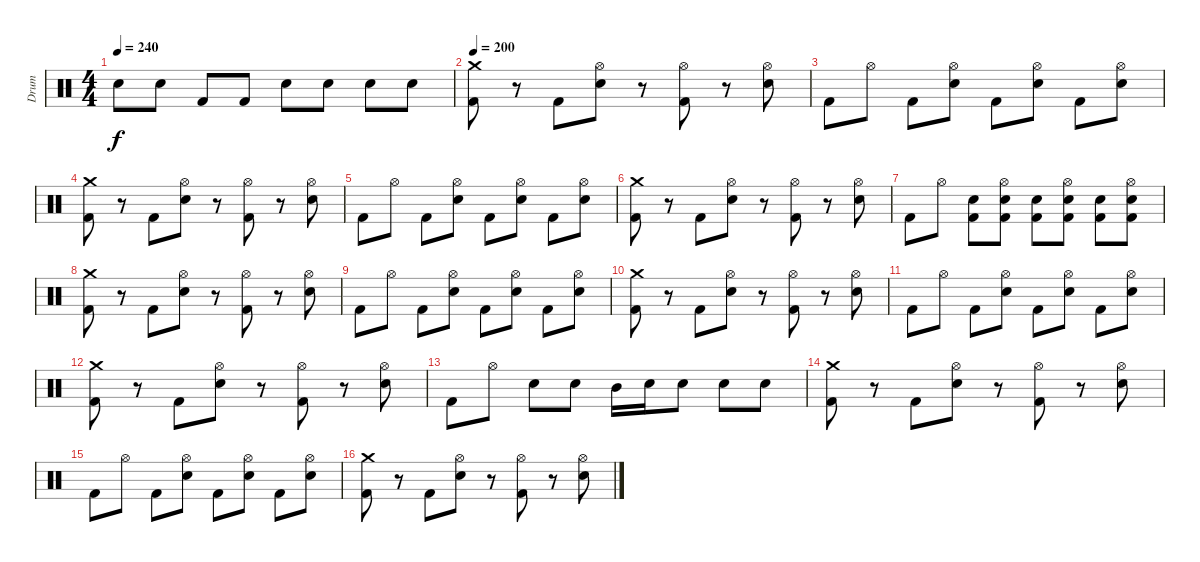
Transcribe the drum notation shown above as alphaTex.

\track ("Drum" "Drum") {instrument percussion}
\staff {score}
\articulation defaults
\ts (4 4)
\tempo 240
\clef neutral
\ks c "Electric Snare (hit)".8{dy f} "Electric Snare (hit)".8 "Kick (hit) 2".8 "Kick (hit) 2".8 "Electric Snare (hit)".8 "Electric Snare (hit)".8 "Electric Snare (hit)".8 "Electric Snare (hit)".8
|
\tempo 200
("Crash medium (hit)" "Kick (hit) 2").8 r.8 "Kick (hit) 2".8 ("Hi-Hat (open)" "Electric Snare (hit)").8 r.8 ("Hi-Hat (open)" "Kick (hit) 2").8 r.8 ("Hi-Hat (open)" "Electric Snare (hit)").8 |
"Kick (hit) 2".8 "Hi-Hat (open)".8 "Kick (hit) 2".8 ("Hi-Hat (open)" "Electric Snare (hit)").8 "Kick (hit) 2".8 ("Hi-Hat (open)" "Electric Snare (hit)").8 "Kick (hit) 2".8 ("Hi-Hat (open)" "Electric Snare (hit)").8 |
("Crash medium (hit)" "Kick (hit) 2").8 r.8 "Kick (hit) 2".8 ("Hi-Hat (open)" "Electric Snare (hit)").8 r.8 ("Hi-Hat (open)" "Kick (hit) 2").8 r.8 ("Hi-Hat (open)" "Electric Snare (hit)").8 |
"Kick (hit) 2".8 "Hi-Hat (open)".8 "Kick (hit) 2".8 ("Hi-Hat (open)" "Electric Snare (hit)").8 "Kick (hit) 2".8 ("Hi-Hat (open)" "Electric Snare (hit)").8 "Kick (hit) 2".8 ("Hi-Hat (open)" "Electric Snare (hit)").8 |
("Crash medium (hit)" "Kick (hit) 2").8 r.8 "Kick (hit) 2".8 ("Hi-Hat (open)" "Electric Snare (hit)").8 r.8 ("Hi-Hat (open)" "Kick (hit) 2").8 r.8 ("Hi-Hat (open)" "Electric Snare (hit)").8 |
"Kick (hit) 2".8 "Hi-Hat (open)".8 ("Electric Snare (hit)" "Kick (hit) 2").8 ("Hi-Hat (open)" "Electric Snare (hit)" "Kick (hit) 2").8 ("Electric Snare (hit)" "Kick (hit) 2").8 ("Hi-Hat (open)" "Electric Snare (hit)" "Kick (hit) 2").8 ("Electric Snare (hit)" "Kick (hit) 2").8 ("Hi-Hat (open)" "Electric Snare (hit)" "Kick (hit) 2").8 |
("Crash medium (hit)" "Kick (hit) 2").8 r.8 "Kick (hit) 2".8 ("Hi-Hat (open)" "Electric Snare (hit)").8 r.8 ("Hi-Hat (open)" "Kick (hit) 2").8 r.8 ("Hi-Hat (open)" "Electric Snare (hit)").8 |
"Kick (hit) 2".8 "Hi-Hat (open)".8 "Kick (hit) 2".8 ("Hi-Hat (open)" "Electric Snare (hit)").8 "Kick (hit) 2".8 ("Hi-Hat (open)" "Electric Snare (hit)").8 "Kick (hit) 2".8 ("Hi-Hat (open)" "Electric Snare (hit)").8 |
("Crash medium (hit)" "Kick (hit) 2").8 r.8 "Kick (hit) 2".8 ("Hi-Hat (open)" "Electric Snare (hit)").8 r.8 ("Hi-Hat (open)" "Kick (hit) 2").8 r.8 ("Hi-Hat (open)" "Electric Snare (hit)").8 |
"Kick (hit) 2".8 "Hi-Hat (open)".8 "Kick (hit) 2".8 ("Hi-Hat (open)" "Electric Snare (hit)").8 "Kick (hit) 2".8 ("Hi-Hat (open)" "Electric Snare (hit)").8 "Kick (hit) 2".8 ("Hi-Hat (open)" "Electric Snare (hit)").8 |
("Crash medium (hit)" "Kick (hit) 2").8 r.8 "Kick (hit) 2".8 ("Hi-Hat (open)" "Electric Snare (hit)").8 r.8 ("Hi-Hat (open)" "Kick (hit) 2").8 r.8 ("Hi-Hat (open)" "Electric Snare (hit)").8 |
"Kick (hit) 2".8 "Hi-Hat (open)".8 "Electric Snare (hit)".8 "Electric Snare (hit)".8 "Mid Tom (hit)".16 "Electric Snare (hit)".16 "Electric Snare (hit)".8 "Electric Snare (hit)".8 "Electric Snare (hit)".8 |
("Crash medium (hit)" "Kick (hit) 2").8 r.8 "Kick (hit) 2".8 ("Hi-Hat (open)" "Electric Snare (hit)").8 r.8 ("Hi-Hat (open)" "Kick (hit) 2").8 r.8 ("Hi-Hat (open)" "Electric Snare (hit)").8 |
"Kick (hit) 2".8 "Hi-Hat (open)".8 "Kick (hit) 2".8 ("Hi-Hat (open)" "Electric Snare (hit)").8 "Kick (hit) 2".8 ("Hi-Hat (open)" "Electric Snare (hit)").8 "Kick (hit) 2".8 ("Hi-Hat (open)" "Electric Snare (hit)").8 |
("Crash medium (hit)" "Kick (hit) 2").8 r.8 "Kick (hit) 2".8 ("Hi-Hat (open)" "Electric Snare (hit)").8 r.8 ("Hi-Hat (open)" "Kick (hit) 2").8 r.8 ("Hi-Hat (open)" "Electric Snare (hit)").8
